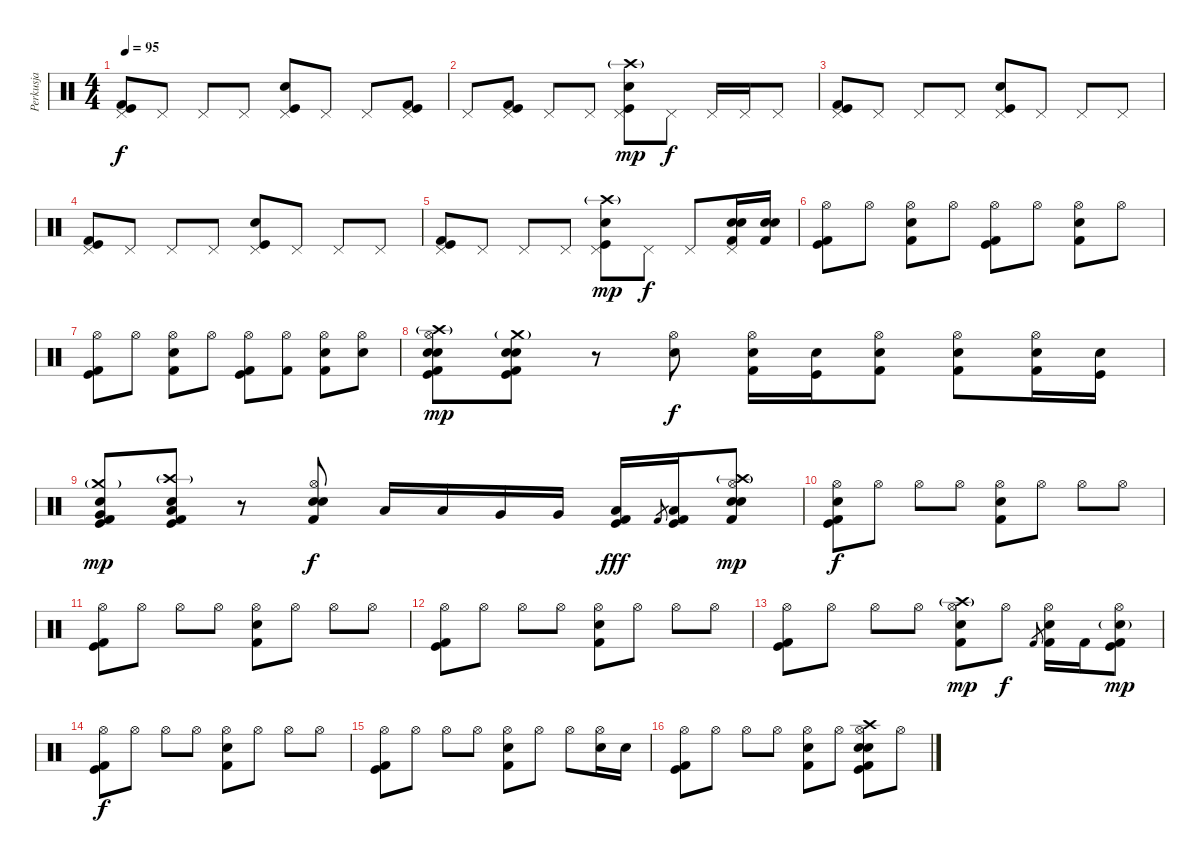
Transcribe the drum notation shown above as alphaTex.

\track ("Perkusja" "Perkusja") {instrument percussion}
\staff {score}
\articulation defaults
\ts (4 4)
\tempo 95
\clef neutral
\ks c
("Pedal Hi-Hat (hit)" "Kick (hit)" "Kick (hit) 2").8{dy f} "Pedal Hi-Hat (hit)".8 "Pedal Hi-Hat (hit)".8 "Pedal Hi-Hat (hit)".8 ("Pedal Hi-Hat (hit)" "Kick (hit)" "Electric Snare (hit)").8 "Pedal Hi-Hat (hit)".8 "Pedal Hi-Hat (hit)".8 ("Pedal Hi-Hat (hit)" "Kick (hit) 2" "Kick (hit)").8 |
"Pedal Hi-Hat (hit)".8 ("Pedal Hi-Hat (hit)" "Kick (hit) 2" "Kick (hit)").8 "Pedal Hi-Hat (hit)".8 "Pedal Hi-Hat (hit)".8 ("Pedal Hi-Hat (hit)" "Crash high (hit)"{g} "Kick (hit)" "Electric Snare (hit)").8{dy mp} "Pedal Hi-Hat (hit)".8{dy f} "Pedal Hi-Hat (hit)".16 "Pedal Hi-Hat (hit)".16 "Pedal Hi-Hat (hit)".8 |
("Pedal Hi-Hat (hit)" "Kick (hit)" "Kick (hit) 2").8 "Pedal Hi-Hat (hit)".8 "Pedal Hi-Hat (hit)".8 "Pedal Hi-Hat (hit)".8 ("Pedal Hi-Hat (hit)" "Kick (hit)" "Electric Snare (hit)").8 "Pedal Hi-Hat (hit)".8 "Pedal Hi-Hat (hit)".8 "Pedal Hi-Hat (hit)".8 |
("Pedal Hi-Hat (hit)" "Kick (hit)" "Kick (hit) 2").8 "Pedal Hi-Hat (hit)".8 "Pedal Hi-Hat (hit)".8 "Pedal Hi-Hat (hit)".8 ("Pedal Hi-Hat (hit)" "Kick (hit)" "Electric Snare (hit)").8 "Pedal Hi-Hat (hit)".8 "Pedal Hi-Hat (hit)".8 "Pedal Hi-Hat (hit)".8 |
("Pedal Hi-Hat (hit)" "Kick (hit)" "Kick (hit) 2").8 "Pedal Hi-Hat (hit)".8 "Pedal Hi-Hat (hit)".8 "Pedal Hi-Hat (hit)".8 ("Pedal Hi-Hat (hit)" "Crash high (hit)"{g} "Kick (hit)" "Electric Snare (hit)").8{dy mp} "Pedal Hi-Hat (hit)".8{dy f} "Pedal Hi-Hat (hit)".8 ("Pedal Hi-Hat (hit)" "Kick (hit) 2" "Electric Snare (hit)" "Electric Snare (hit)").16 ("Kick (hit) 2" "Electric Snare (hit)" "Electric Snare (hit)").16 |
("Hi-Hat (open)" "Kick (hit)" "Kick (hit) 2").8 "Hi-Hat (open)".8 ("Hi-Hat (open)" "Electric Snare (hit)" "Kick (hit) 2").8 "Hi-Hat (open)".8 ("Hi-Hat (open)" "Kick (hit)" "Kick (hit) 2").8 "Hi-Hat (open)".8 ("Hi-Hat (open)" "Electric Snare (hit)" "Kick (hit) 2").8 "Hi-Hat (open)".8 |
("Hi-Hat (open)" "Kick (hit)" "Kick (hit) 2").8 "Hi-Hat (open)".8 ("Hi-Hat (open)" "Electric Snare (hit)" "Kick (hit) 2").8 "Hi-Hat (open)".8 ("Hi-Hat (open)" "Kick (hit)" "Kick (hit) 2").8 ("Hi-Hat (open)" "Kick (hit) 2").8 ("Hi-Hat (open)" "Electric Snare (hit)" "Kick (hit) 2").8 ("Hi-Hat (open)" "Electric Snare (hit)").8 |
("Crash high (hit)"{g} "Hi-Hat (open)" "Snare (hit) 2" "Electric Snare (hit)" "Kick (hit)" "Kick (hit) 2").8{dy mp} ("Crash medium (hit)"{g} "Snare (hit) 2" "Electric Snare (hit)" "Kick (hit)" "Kick (hit) 2").8 r.8 ("Hi-Hat (open)" "Electric Snare (hit)").8{dy f} ("Hi-Hat (open)" "Electric Snare (hit)" "Kick (hit) 2").16 ("Electric Snare (hit)" "Kick (hit)").16 ("Hi-Hat (open)" "Electric Snare (hit)" "Kick (hit) 2").8 ("Hi-Hat (open)" "Electric Snare (hit)" "Kick (hit) 2").8 ("Hi-Hat (open)" "Electric Snare (hit)" "Kick (hit) 2").16 ("Electric Snare (hit)" "Kick (hit)").16 |
("Crash medium (hit)"{g} "Snare (hit) 2" "Kick (hit)" "Kick (hit) 2" "Very Low Tom (hit)").8{dy mp} ("Crash high (hit)"{g} "Snare (hit) 2" "Kick (hit) 2" "Kick (hit)" "Low Floor Tom (hit)").8 r.8 ("Hi-Hat (open)" "Snare (hit) 2" "Electric Snare (hit)" "Kick (hit) 2").8{dy f} "Low Tom (hit)".16 "Low Tom (hit)".16 "Very Low Tom (hit)".16 "Very Low Tom (hit)".16 ("Kick (hit)" "Low Floor Tom (hit)" "Kick (hit) 2").16{dy fff} "Kick (hit) 2".8{gr} ("Kick (hit)" "Low Floor Tom (hit)" "Kick (hit) 2").16 ("Hi-Hat (open)" "Crash high (hit)"{g} "Snare (hit) 2" "Electric Snare (hit)" "Kick (hit) 2").8{dy mp} |
("Hi-Hat (open)" "Snare (hit) 2" "Kick (hit)" "Kick (hit) 2").8{dy f} "Hi-Hat (open)".8 "Hi-Hat (open)".8 "Hi-Hat (open)".8 ("Hi-Hat (open)" "Electric Snare (hit)" "Kick (hit) 2").8 "Hi-Hat (open)".8 "Hi-Hat (open)".8 "Hi-Hat (open)".8 |
("Hi-Hat (open)" "Kick (hit)" "Kick (hit) 2").8 "Hi-Hat (open)".8 "Hi-Hat (open)".8 "Hi-Hat (open)".8 ("Hi-Hat (open)" "Electric Snare (hit)" "Kick (hit) 2").8 "Hi-Hat (open)".8 "Hi-Hat (open)".8 "Hi-Hat (open)".8 |
("Hi-Hat (open)" "Kick (hit)" "Kick (hit) 2").8 "Hi-Hat (open)".8 "Hi-Hat (open)".8 "Hi-Hat (open)".8 ("Hi-Hat (open)" "Electric Snare (hit)" "Kick (hit) 2").8 "Hi-Hat (open)".8 "Hi-Hat (open)".8 "Hi-Hat (open)".8 |
("Hi-Hat (open)" "Kick (hit)" "Kick (hit) 2").8 "Hi-Hat (open)".8 "Hi-Hat (open)".8 "Hi-Hat (open)".8 ("Hi-Hat (open)" "Crash high (hit)"{g} "Electric Snare (hit)" "Kick (hit) 2").8{dy mp} "Hi-Hat (open)".8{dy f} "Kick (hit) 2".8{gr} ("Hi-Hat (open)" "Electric Snare (hit)" "Kick (hit) 2").16 "Kick (hit) 2".16 ("Hi-Hat (open)" "Kick (hit)" "Electric Snare (hit)"{g} "Kick (hit) 2").8{dy mp} |
("Hi-Hat (open)" "Kick (hit)" "Kick (hit) 2").8{dy f} "Hi-Hat (open)".8 "Hi-Hat (open)".8 "Hi-Hat (open)".8 ("Hi-Hat (open)" "Electric Snare (hit)" "Kick (hit) 2").8 "Hi-Hat (open)".8 "Hi-Hat (open)".8 "Hi-Hat (open)".8 |
("Hi-Hat (open)" "Kick (hit)" "Kick (hit) 2").8 "Hi-Hat (open)".8 "Hi-Hat (open)".8 "Hi-Hat (open)".8 ("Hi-Hat (open)" "Electric Snare (hit)" "Kick (hit) 2").8 "Hi-Hat (open)".8 "Hi-Hat (open)".8 ("Hi-Hat (open)" "Electric Snare (hit)").16 "Electric Snare (hit)".16 |
("Hi-Hat (open)" "Kick (hit)" "Kick (hit) 2").8 "Hi-Hat (open)".8 "Hi-Hat (open)".8 "Hi-Hat (open)".8 ("Hi-Hat (open)" "Electric Snare (hit)" "Kick (hit) 2").8 "Hi-Hat (open)".8 ("Hi-Hat (open)" "Crash high (hit)" "Kick (hit)" "Snare (hit) 2" "Kick (hit) 2" "Electric Snare (hit)").8 "Hi-Hat (open)".8
